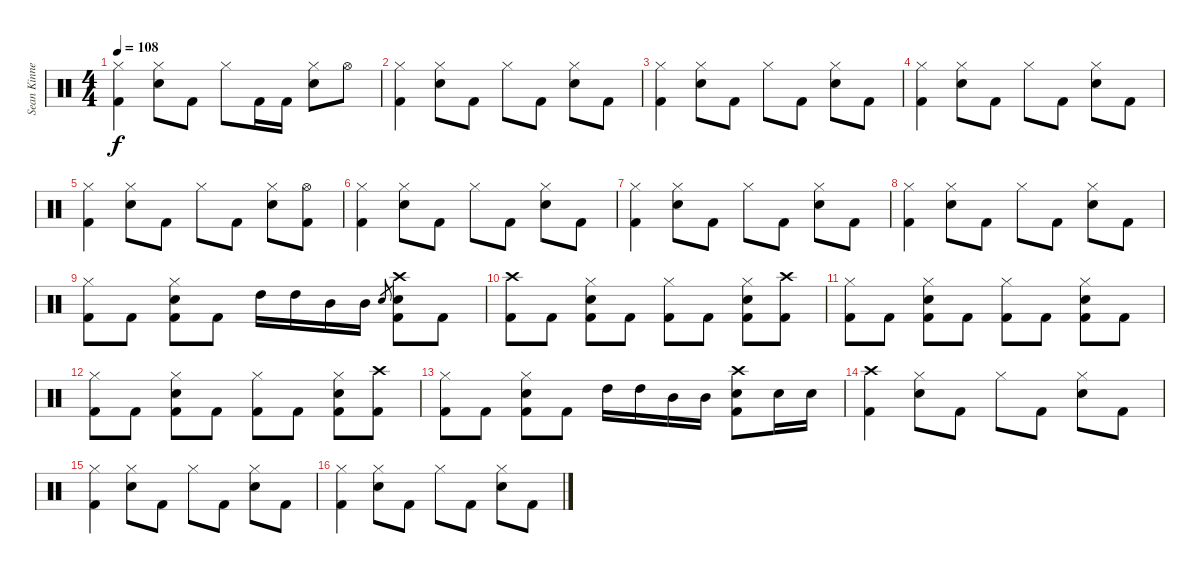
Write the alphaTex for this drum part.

\track ("Sean Kinney - Drums" "Sean Kinne") {instrument percussion}
\staff {score}
\articulation defaults
\ts (4 4)
\tempo 108
\clef neutral
\ks c
("Hi-Hat (closed)" "Kick (hit) 2").4{dy f} ("Hi-Hat (closed)" "Electric Snare (hit)").8 "Kick (hit) 2".8 "Hi-Hat (closed)".8 "Kick (hit) 2".16 "Kick (hit) 2".16 ("Hi-Hat (closed)" "Electric Snare (hit)").8 "Hi-Hat (open)".8 |
("Hi-Hat (closed)" "Kick (hit) 2").4 ("Hi-Hat (closed)" "Electric Snare (hit)").8 "Kick (hit) 2".8 "Hi-Hat (closed)".8 "Kick (hit) 2".8 ("Hi-Hat (closed)" "Electric Snare (hit)").8 "Kick (hit) 2".8 |
("Hi-Hat (closed)" "Kick (hit) 2").4 ("Hi-Hat (closed)" "Electric Snare (hit)").8 "Kick (hit) 2".8 "Hi-Hat (closed)".8 "Kick (hit) 2".8 ("Hi-Hat (closed)" "Electric Snare (hit)").8 "Kick (hit) 2".8 |
("Hi-Hat (closed)" "Kick (hit) 2").4 ("Hi-Hat (closed)" "Electric Snare (hit)").8 "Kick (hit) 2".8 "Hi-Hat (closed)".8 "Kick (hit) 2".8 ("Hi-Hat (closed)" "Electric Snare (hit)").8 "Kick (hit) 2".8 |
("Hi-Hat (closed)" "Kick (hit) 2").4 ("Hi-Hat (closed)" "Electric Snare (hit)").8 "Kick (hit) 2".8 "Hi-Hat (closed)".8 "Kick (hit) 2".8 ("Hi-Hat (closed)" "Electric Snare (hit)").8 ("Hi-Hat (open)" "Kick (hit) 2").8 |
("Hi-Hat (closed)" "Kick (hit) 2").4 ("Hi-Hat (closed)" "Electric Snare (hit)").8 "Kick (hit) 2".8 "Hi-Hat (closed)".8 "Kick (hit) 2".8 ("Hi-Hat (closed)" "Electric Snare (hit)").8 "Kick (hit) 2".8 |
("Hi-Hat (closed)" "Kick (hit) 2").4 ("Hi-Hat (closed)" "Electric Snare (hit)").8 "Kick (hit) 2".8 "Hi-Hat (closed)".8 "Kick (hit) 2".8 ("Hi-Hat (closed)" "Electric Snare (hit)").8 "Kick (hit) 2".8 |
("Hi-Hat (closed)" "Kick (hit) 2").4 ("Hi-Hat (closed)" "Electric Snare (hit)").8 "Kick (hit) 2".8 "Hi-Hat (closed)".8 "Kick (hit) 2".8 ("Hi-Hat (closed)" "Electric Snare (hit)").8 "Kick (hit) 2".8 |
("Hi-Hat (closed)" "Kick (hit) 2").8 "Kick (hit) 2".8 ("Hi-Hat (closed)" "Electric Snare (hit)" "Kick (hit) 2").8 "Kick (hit) 2".8 "High Tom (hit)".16 "High Tom (hit)".16 "Mid Tom (hit)".16 "Mid Tom (hit)".16 "Electric Snare (hit)".8{gr} ("Crash high (hit)" "Electric Snare (hit)" "Kick (hit) 2").8 "Kick (hit) 2".8 |
("Crash high (hit)" "Kick (hit) 2").8 "Kick (hit) 2".8 ("Hi-Hat (closed)" "Electric Snare (hit)" "Kick (hit) 2").8 "Kick (hit) 2".8 ("Hi-Hat (closed)" "Kick (hit) 2").8 "Kick (hit) 2".8 ("Hi-Hat (closed)" "Electric Snare (hit)" "Kick (hit) 2").8 ("Crash high (hit)" "Kick (hit) 2").8 |
("Hi-Hat (closed)" "Kick (hit) 2").8 "Kick (hit) 2".8 ("Hi-Hat (closed)" "Electric Snare (hit)" "Kick (hit) 2").8 "Kick (hit) 2".8 ("Hi-Hat (closed)" "Kick (hit) 2").8 "Kick (hit) 2".8 ("Hi-Hat (closed)" "Electric Snare (hit)" "Kick (hit) 2").8 "Kick (hit) 2".8 |
("Hi-Hat (closed)" "Kick (hit) 2").8 "Kick (hit) 2".8 ("Hi-Hat (closed)" "Electric Snare (hit)" "Kick (hit) 2").8 "Kick (hit) 2".8 ("Hi-Hat (closed)" "Kick (hit) 2").8 "Kick (hit) 2".8 ("Hi-Hat (closed)" "Electric Snare (hit)" "Kick (hit) 2").8 ("Crash high (hit)" "Kick (hit) 2").8 |
("Hi-Hat (closed)" "Kick (hit) 2").8 "Kick (hit) 2".8 ("Hi-Hat (closed)" "Electric Snare (hit)" "Kick (hit) 2").8 "Kick (hit) 2".8 "High Tom (hit)".16 "High Tom (hit)".16 "Mid Tom (hit)".16 "Mid Tom (hit)".16 ("Crash high (hit)" "Electric Snare (hit)" "Kick (hit) 2").8 "Electric Snare (hit)".16 "Electric Snare (hit)".16 |
("Crash high (hit)" "Kick (hit) 2").4 ("Hi-Hat (closed)" "Electric Snare (hit)").8 "Kick (hit) 2".8 "Hi-Hat (closed)".8 "Kick (hit) 2".8 ("Hi-Hat (closed)" "Electric Snare (hit)").8 "Kick (hit) 2".8 |
("Hi-Hat (closed)" "Kick (hit) 2").4 ("Hi-Hat (closed)" "Electric Snare (hit)").8 "Kick (hit) 2".8 "Hi-Hat (closed)".8 "Kick (hit) 2".8 ("Hi-Hat (closed)" "Electric Snare (hit)").8 "Kick (hit) 2".8 |
("Hi-Hat (closed)" "Kick (hit) 2").4 ("Hi-Hat (closed)" "Electric Snare (hit)").8 "Kick (hit) 2".8 "Hi-Hat (closed)".8 "Kick (hit) 2".8 ("Hi-Hat (closed)" "Electric Snare (hit)").8 "Kick (hit) 2".8
